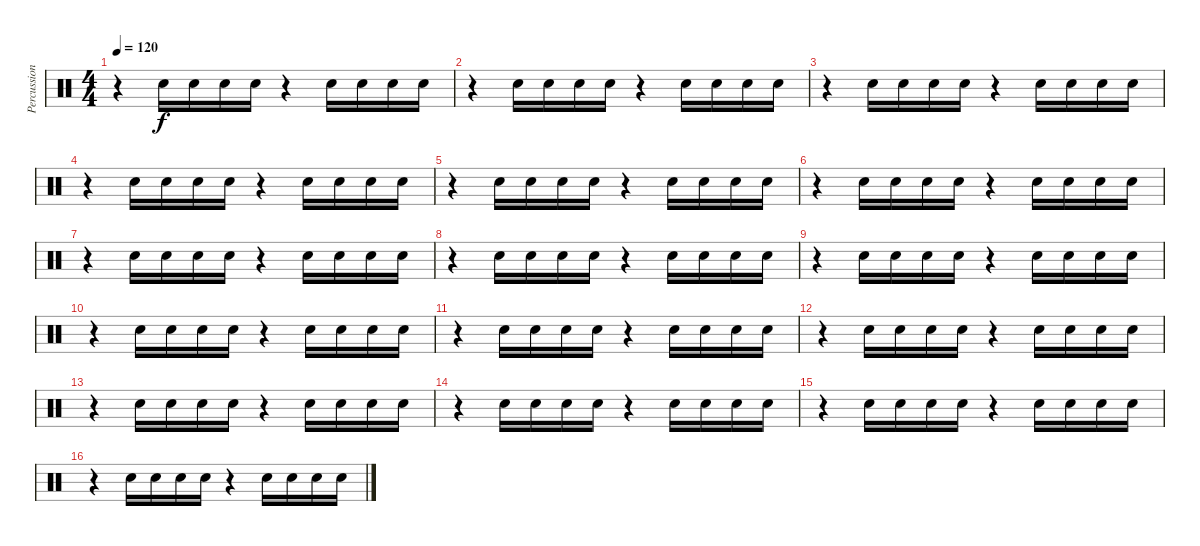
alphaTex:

\track ("Percussion" "Percussion") {instrument percussion}
\staff {score}
\articulation defaults
\ts (4 4)
\tempo 120
\clef neutral
\ks c
r.4{dy f} "Hand Clap (hit)".16 "Hand Clap (hit)".16 "Hand Clap (hit)".16 "Hand Clap (hit)".16 r.4 "Hand Clap (hit)".16 "Hand Clap (hit)".16 "Hand Clap (hit)".16 "Hand Clap (hit)".16 |
r.4 "Hand Clap (hit)".16 "Hand Clap (hit)".16 "Hand Clap (hit)".16 "Hand Clap (hit)".16 r.4 "Hand Clap (hit)".16 "Hand Clap (hit)".16 "Hand Clap (hit)".16 "Hand Clap (hit)".16 |
r.4 "Hand Clap (hit)".16 "Hand Clap (hit)".16 "Hand Clap (hit)".16 "Hand Clap (hit)".16 r.4 "Hand Clap (hit)".16 "Hand Clap (hit)".16 "Hand Clap (hit)".16 "Hand Clap (hit)".16 |
r.4 "Hand Clap (hit)".16 "Hand Clap (hit)".16 "Hand Clap (hit)".16 "Hand Clap (hit)".16 r.4 "Hand Clap (hit)".16 "Hand Clap (hit)".16 "Hand Clap (hit)".16 "Hand Clap (hit)".16 |
r.4 "Hand Clap (hit)".16 "Hand Clap (hit)".16 "Hand Clap (hit)".16 "Hand Clap (hit)".16 r.4 "Hand Clap (hit)".16 "Hand Clap (hit)".16 "Hand Clap (hit)".16 "Hand Clap (hit)".16 |
r.4 "Hand Clap (hit)".16 "Hand Clap (hit)".16 "Hand Clap (hit)".16 "Hand Clap (hit)".16 r.4 "Hand Clap (hit)".16 "Hand Clap (hit)".16 "Hand Clap (hit)".16 "Hand Clap (hit)".16 |
r.4 "Hand Clap (hit)".16 "Hand Clap (hit)".16 "Hand Clap (hit)".16 "Hand Clap (hit)".16 r.4 "Hand Clap (hit)".16 "Hand Clap (hit)".16 "Hand Clap (hit)".16 "Hand Clap (hit)".16 |
r.4 "Hand Clap (hit)".16 "Hand Clap (hit)".16 "Hand Clap (hit)".16 "Hand Clap (hit)".16 r.4 "Hand Clap (hit)".16 "Hand Clap (hit)".16 "Hand Clap (hit)".16 "Hand Clap (hit)".16 |
r.4 "Hand Clap (hit)".16 "Hand Clap (hit)".16 "Hand Clap (hit)".16 "Hand Clap (hit)".16 r.4 "Hand Clap (hit)".16 "Hand Clap (hit)".16 "Hand Clap (hit)".16 "Hand Clap (hit)".16 |
r.4 "Hand Clap (hit)".16 "Hand Clap (hit)".16 "Hand Clap (hit)".16 "Hand Clap (hit)".16 r.4 "Hand Clap (hit)".16 "Hand Clap (hit)".16 "Hand Clap (hit)".16 "Hand Clap (hit)".16 |
r.4 "Hand Clap (hit)".16 "Hand Clap (hit)".16 "Hand Clap (hit)".16 "Hand Clap (hit)".16 r.4 "Hand Clap (hit)".16 "Hand Clap (hit)".16 "Hand Clap (hit)".16 "Hand Clap (hit)".16 |
r.4 "Hand Clap (hit)".16 "Hand Clap (hit)".16 "Hand Clap (hit)".16 "Hand Clap (hit)".16 r.4 "Hand Clap (hit)".16 "Hand Clap (hit)".16 "Hand Clap (hit)".16 "Hand Clap (hit)".16 |
r.4 "Hand Clap (hit)".16 "Hand Clap (hit)".16 "Hand Clap (hit)".16 "Hand Clap (hit)".16 r.4 "Hand Clap (hit)".16 "Hand Clap (hit)".16 "Hand Clap (hit)".16 "Hand Clap (hit)".16 |
r.4 "Hand Clap (hit)".16 "Hand Clap (hit)".16 "Hand Clap (hit)".16 "Hand Clap (hit)".16 r.4 "Hand Clap (hit)".16 "Hand Clap (hit)".16 "Hand Clap (hit)".16 "Hand Clap (hit)".16 |
r.4 "Hand Clap (hit)".16 "Hand Clap (hit)".16 "Hand Clap (hit)".16 "Hand Clap (hit)".16 r.4 "Hand Clap (hit)".16 "Hand Clap (hit)".16 "Hand Clap (hit)".16 "Hand Clap (hit)".16 |
r.4 "Hand Clap (hit)".16 "Hand Clap (hit)".16 "Hand Clap (hit)".16 "Hand Clap (hit)".16 r.4 "Hand Clap (hit)".16 "Hand Clap (hit)".16 "Hand Clap (hit)".16 "Hand Clap (hit)".16
